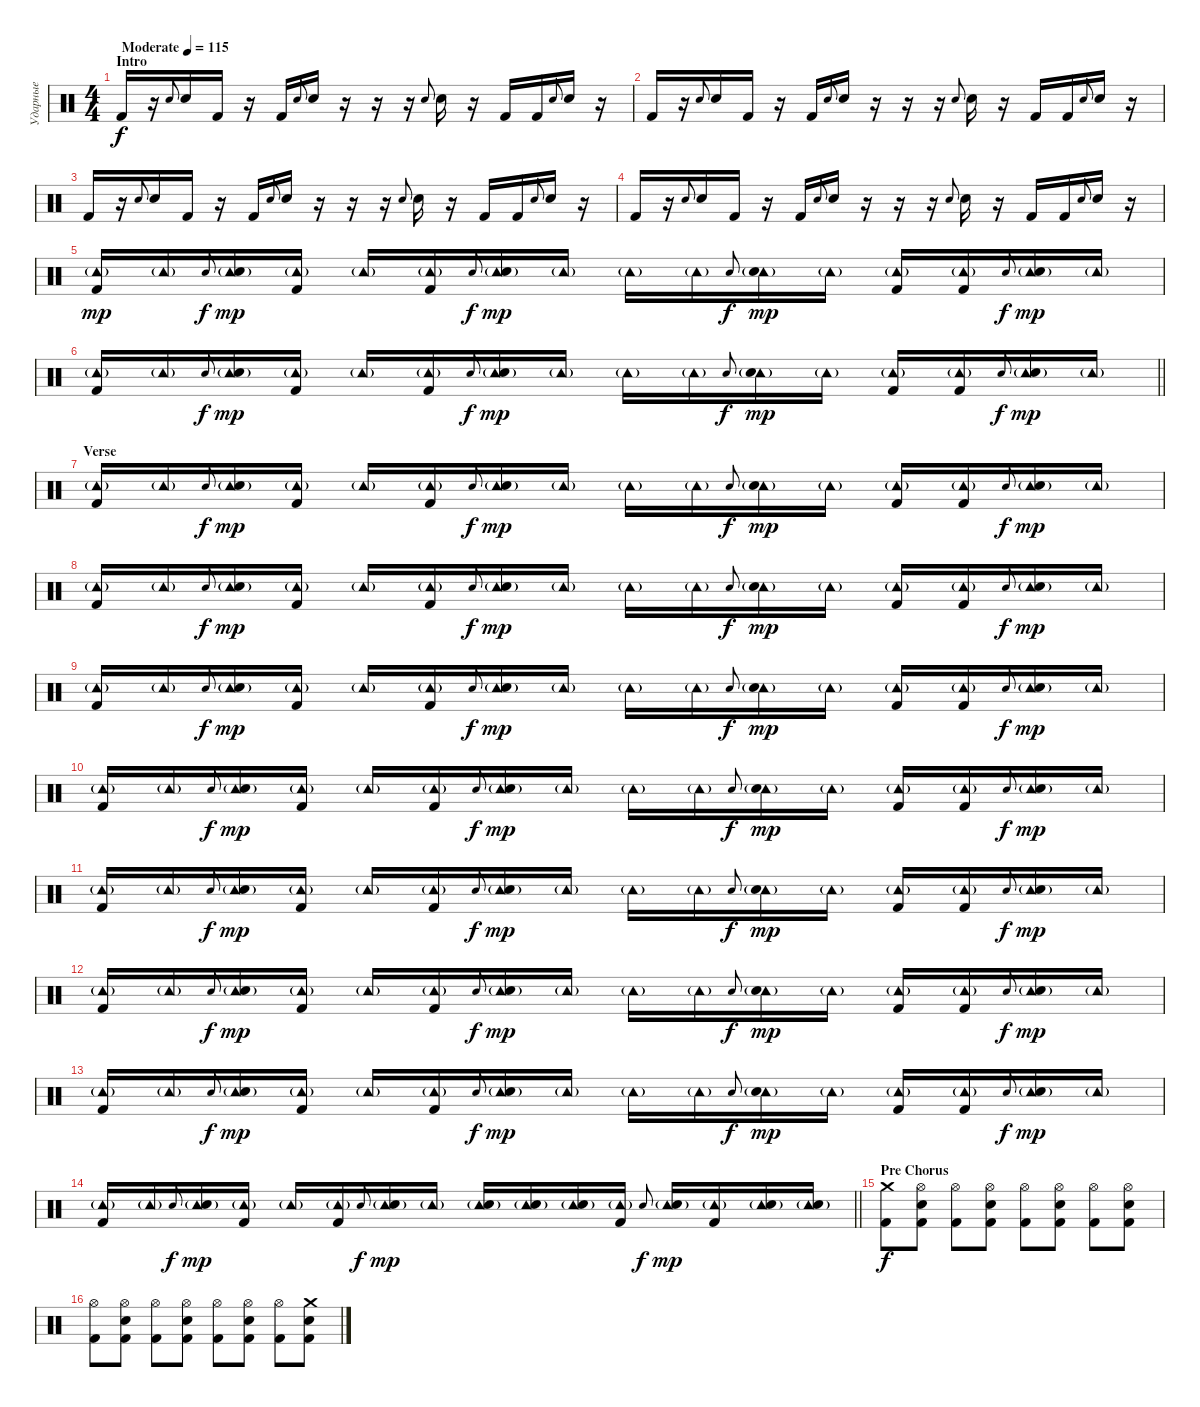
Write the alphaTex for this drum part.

\track ("Ударные" "Ударные") {instrument percussion}
\staff {score}
\articulation defaults
\ts (4 4)
\section ("" "Intro")
\tempo (115 "Moderate")
\clef neutral
\ks c "Kick (hit) 2".16{dy f}
r.16 "Snare (hit) 2".8{gr onbeat} "Snare (hit) 2".16 "Kick (hit) 2".16 r.16 "Kick (hit) 2".16 "Snare (hit) 2".8{gr onbeat} "Snare (hit) 2".16 r.16 r.16 r.16 "Snare (hit) 2".8{gr onbeat} "Snare (hit) 2".16 r.16 "Kick (hit) 2".16 "Kick (hit) 2".16 "Snare (hit) 2".8{gr onbeat} "Snare (hit) 2".16 r.16 |
"Kick (hit) 2".16 r.16 "Snare (hit) 2".8{gr onbeat} "Snare (hit) 2".16 "Kick (hit) 2".16 r.16 "Kick (hit) 2".16 "Snare (hit) 2".8{gr onbeat} "Snare (hit) 2".16 r.16 r.16 r.16 "Snare (hit) 2".8{gr onbeat} "Snare (hit) 2".16 r.16 "Kick (hit) 2".16 "Kick (hit) 2".16 "Snare (hit) 2".8{gr onbeat} "Snare (hit) 2".16 r.16 |
"Kick (hit) 2".16 r.16 "Snare (hit) 2".8{gr onbeat} "Snare (hit) 2".16 "Kick (hit) 2".16 r.16 "Kick (hit) 2".16 "Snare (hit) 2".8{gr onbeat} "Snare (hit) 2".16 r.16 r.16 r.16 "Snare (hit) 2".8{gr onbeat} "Snare (hit) 2".16 r.16 "Kick (hit) 2".16 "Kick (hit) 2".16 "Snare (hit) 2".8{gr onbeat} "Snare (hit) 2".16 r.16 |
"Kick (hit) 2".16 r.16 "Snare (hit) 2".8{gr onbeat} "Snare (hit) 2".16 "Kick (hit) 2".16 r.16 "Kick (hit) 2".16 "Snare (hit) 2".8{gr onbeat} "Snare (hit) 2".16 r.16 r.16 r.16 "Snare (hit) 2".8{gr onbeat} "Snare (hit) 2".16 r.16 "Kick (hit) 2".16 "Kick (hit) 2".16 "Snare (hit) 2".8{gr onbeat} "Snare (hit) 2".16 r.16 |
("Tambourine (hit)"{g} "Kick (hit) 2").16{dy mp} "Tambourine (hit)"{g}.16 "Snare (hit) 2".8{gr onbeat dy f} ("Tambourine (hit)"{g} "Snare (hit) 2").16{dy mp} ("Tambourine (hit)"{g} "Kick (hit) 2").16 "Tambourine (hit)"{g}.16 ("Tambourine (hit)"{g} "Kick (hit) 2").16 "Snare (hit) 2".8{gr onbeat dy f} ("Tambourine (hit)"{g} "Snare (hit) 2").16{dy mp} "Tambourine (hit)"{g}.16 "Tambourine (hit)"{g}.16 "Tambourine (hit)"{g}.16 "Snare (hit) 2".8{gr onbeat dy f} ("Tambourine (hit)"{g} "Snare (hit) 2").16{dy mp} "Tambourine (hit)"{g}.16 ("Tambourine (hit)"{g} "Kick (hit) 2").16 ("Tambourine (hit)"{g} "Kick (hit) 2").16 "Snare (hit) 2".8{gr onbeat dy f} ("Tambourine (hit)"{g} "Snare (hit) 2").16{dy mp} "Tambourine (hit)"{g}.16 |
\barLineRight lightlight
("Tambourine (hit)"{g} "Kick (hit) 2").16 "Tambourine (hit)"{g}.16 "Snare (hit) 2".8{gr onbeat dy f} ("Tambourine (hit)"{g} "Snare (hit) 2").16{dy mp} ("Tambourine (hit)"{g} "Kick (hit) 2").16 "Tambourine (hit)"{g}.16 ("Tambourine (hit)"{g} "Kick (hit) 2").16 "Snare (hit) 2".8{gr onbeat dy f} ("Tambourine (hit)"{g} "Snare (hit) 2").16{dy mp} "Tambourine (hit)"{g}.16 "Tambourine (hit)"{g}.16 "Tambourine (hit)"{g}.16 "Snare (hit) 2".8{gr onbeat dy f} ("Tambourine (hit)"{g} "Snare (hit) 2").16{dy mp} "Tambourine (hit)"{g}.16 ("Tambourine (hit)"{g} "Kick (hit) 2").16 ("Tambourine (hit)"{g} "Kick (hit) 2").16 "Snare (hit) 2".8{gr onbeat dy f} ("Tambourine (hit)"{g} "Snare (hit) 2").16{dy mp} "Tambourine (hit)"{g}.16 |
\section ("" "Verse")
("Tambourine (hit)"{g} "Kick (hit) 2").16 "Tambourine (hit)"{g}.16 "Snare (hit) 2".8{gr onbeat dy f} ("Tambourine (hit)"{g} "Snare (hit) 2").16{dy mp} ("Tambourine (hit)"{g} "Kick (hit) 2").16 "Tambourine (hit)"{g}.16 ("Tambourine (hit)"{g} "Kick (hit) 2").16 "Snare (hit) 2".8{gr onbeat dy f} ("Tambourine (hit)"{g} "Snare (hit) 2").16{dy mp} "Tambourine (hit)"{g}.16 "Tambourine (hit)"{g}.16 "Tambourine (hit)"{g}.16 "Snare (hit) 2".8{gr onbeat dy f} ("Tambourine (hit)"{g} "Snare (hit) 2").16{dy mp} "Tambourine (hit)"{g}.16 ("Tambourine (hit)"{g} "Kick (hit) 2").16 ("Tambourine (hit)"{g} "Kick (hit) 2").16 "Snare (hit) 2".8{gr onbeat dy f} ("Tambourine (hit)"{g} "Snare (hit) 2").16{dy mp} "Tambourine (hit)"{g}.16 |
("Tambourine (hit)"{g} "Kick (hit) 2").16 "Tambourine (hit)"{g}.16 "Snare (hit) 2".8{gr onbeat dy f} ("Tambourine (hit)"{g} "Snare (hit) 2").16{dy mp} ("Tambourine (hit)"{g} "Kick (hit) 2").16 "Tambourine (hit)"{g}.16 ("Tambourine (hit)"{g} "Kick (hit) 2").16 "Snare (hit) 2".8{gr onbeat dy f} ("Tambourine (hit)"{g} "Snare (hit) 2").16{dy mp} "Tambourine (hit)"{g}.16 "Tambourine (hit)"{g}.16 "Tambourine (hit)"{g}.16 "Snare (hit) 2".8{gr onbeat dy f} ("Tambourine (hit)"{g} "Snare (hit) 2").16{dy mp} "Tambourine (hit)"{g}.16 ("Tambourine (hit)"{g} "Kick (hit) 2").16 ("Tambourine (hit)"{g} "Kick (hit) 2").16 "Snare (hit) 2".8{gr onbeat dy f} ("Tambourine (hit)"{g} "Snare (hit) 2").16{dy mp} "Tambourine (hit)"{g}.16 |
("Tambourine (hit)"{g} "Kick (hit) 2").16 "Tambourine (hit)"{g}.16 "Snare (hit) 2".8{gr onbeat dy f} ("Tambourine (hit)"{g} "Snare (hit) 2").16{dy mp} ("Tambourine (hit)"{g} "Kick (hit) 2").16 "Tambourine (hit)"{g}.16 ("Tambourine (hit)"{g} "Kick (hit) 2").16 "Snare (hit) 2".8{gr onbeat dy f} ("Tambourine (hit)"{g} "Snare (hit) 2").16{dy mp} "Tambourine (hit)"{g}.16 "Tambourine (hit)"{g}.16 "Tambourine (hit)"{g}.16 "Snare (hit) 2".8{gr onbeat dy f} ("Tambourine (hit)"{g} "Snare (hit) 2").16{dy mp} "Tambourine (hit)"{g}.16 ("Tambourine (hit)"{g} "Kick (hit) 2").16 ("Tambourine (hit)"{g} "Kick (hit) 2").16 "Snare (hit) 2".8{gr onbeat dy f} ("Tambourine (hit)"{g} "Snare (hit) 2").16{dy mp} "Tambourine (hit)"{g}.16 |
("Tambourine (hit)"{g} "Kick (hit) 2").16 "Tambourine (hit)"{g}.16 "Snare (hit) 2".8{gr onbeat dy f} ("Tambourine (hit)"{g} "Snare (hit) 2").16{dy mp} ("Tambourine (hit)"{g} "Kick (hit) 2").16 "Tambourine (hit)"{g}.16 ("Tambourine (hit)"{g} "Kick (hit) 2").16 "Snare (hit) 2".8{gr onbeat dy f} ("Tambourine (hit)"{g} "Snare (hit) 2").16{dy mp} "Tambourine (hit)"{g}.16 "Tambourine (hit)"{g}.16 "Tambourine (hit)"{g}.16 "Snare (hit) 2".8{gr onbeat dy f} ("Tambourine (hit)"{g} "Snare (hit) 2").16{dy mp} "Tambourine (hit)"{g}.16 ("Tambourine (hit)"{g} "Kick (hit) 2").16 ("Tambourine (hit)"{g} "Kick (hit) 2").16 "Snare (hit) 2".8{gr onbeat dy f} ("Tambourine (hit)"{g} "Snare (hit) 2").16{dy mp} "Tambourine (hit)"{g}.16 |
("Tambourine (hit)"{g} "Kick (hit) 2").16 "Tambourine (hit)"{g}.16 "Snare (hit) 2".8{gr onbeat dy f} ("Tambourine (hit)"{g} "Snare (hit) 2").16{dy mp} ("Tambourine (hit)"{g} "Kick (hit) 2").16 "Tambourine (hit)"{g}.16 ("Tambourine (hit)"{g} "Kick (hit) 2").16 "Snare (hit) 2".8{gr onbeat dy f} ("Tambourine (hit)"{g} "Snare (hit) 2").16{dy mp} "Tambourine (hit)"{g}.16 "Tambourine (hit)"{g}.16 "Tambourine (hit)"{g}.16 "Snare (hit) 2".8{gr onbeat dy f} ("Tambourine (hit)"{g} "Snare (hit) 2").16{dy mp} "Tambourine (hit)"{g}.16 ("Tambourine (hit)"{g} "Kick (hit) 2").16 ("Tambourine (hit)"{g} "Kick (hit) 2").16 "Snare (hit) 2".8{gr onbeat dy f} ("Tambourine (hit)"{g} "Snare (hit) 2").16{dy mp} "Tambourine (hit)"{g}.16 |
("Tambourine (hit)"{g} "Kick (hit) 2").16 "Tambourine (hit)"{g}.16 "Snare (hit) 2".8{gr onbeat dy f} ("Tambourine (hit)"{g} "Snare (hit) 2").16{dy mp} ("Tambourine (hit)"{g} "Kick (hit) 2").16 "Tambourine (hit)"{g}.16 ("Tambourine (hit)"{g} "Kick (hit) 2").16 "Snare (hit) 2".8{gr onbeat dy f} ("Tambourine (hit)"{g} "Snare (hit) 2").16{dy mp} "Tambourine (hit)"{g}.16 "Tambourine (hit)"{g}.16 "Tambourine (hit)"{g}.16 "Snare (hit) 2".8{gr onbeat dy f} ("Tambourine (hit)"{g} "Snare (hit) 2").16{dy mp} "Tambourine (hit)"{g}.16 ("Tambourine (hit)"{g} "Kick (hit) 2").16 ("Tambourine (hit)"{g} "Kick (hit) 2").16 "Snare (hit) 2".8{gr onbeat dy f} ("Tambourine (hit)"{g} "Snare (hit) 2").16{dy mp} "Tambourine (hit)"{g}.16 |
("Tambourine (hit)"{g} "Kick (hit) 2").16 "Tambourine (hit)"{g}.16 "Snare (hit) 2".8{gr onbeat dy f} ("Tambourine (hit)"{g} "Snare (hit) 2").16{dy mp} ("Tambourine (hit)"{g} "Kick (hit) 2").16 "Tambourine (hit)"{g}.16 ("Tambourine (hit)"{g} "Kick (hit) 2").16 "Snare (hit) 2".8{gr onbeat dy f} ("Tambourine (hit)"{g} "Snare (hit) 2").16{dy mp} "Tambourine (hit)"{g}.16 "Tambourine (hit)"{g}.16 "Tambourine (hit)"{g}.16 "Snare (hit) 2".8{gr onbeat dy f} ("Tambourine (hit)"{g} "Snare (hit) 2").16{dy mp} "Tambourine (hit)"{g}.16 ("Tambourine (hit)"{g} "Kick (hit) 2").16 ("Tambourine (hit)"{g} "Kick (hit) 2").16 "Snare (hit) 2".8{gr onbeat dy f} ("Tambourine (hit)"{g} "Snare (hit) 2").16{dy mp} "Tambourine (hit)"{g}.16 |
\barLineRight lightlight
("Tambourine (hit)"{g} "Kick (hit) 2").16 "Tambourine (hit)"{g}.16 "Snare (hit) 2".8{gr onbeat dy f} ("Tambourine (hit)"{g} "Snare (hit) 2").16{dy mp} ("Tambourine (hit)"{g} "Kick (hit) 2").16 "Tambourine (hit)"{g}.16 ("Tambourine (hit)"{g} "Kick (hit) 2").16 "Snare (hit) 2".8{gr onbeat dy f} ("Tambourine (hit)"{g} "Snare (hit) 2").16{dy mp} "Tambourine (hit)"{g}.16 ("Tambourine (hit)"{g} "Snare (hit) 2").16 ("Tambourine (hit)"{g} "Snare (hit) 2").16 ("Tambourine (hit)"{g} "Snare (hit) 2").16 ("Tambourine (hit)"{g} "Kick (hit) 2").16 "Snare (hit) 2".8{gr onbeat dy f} ("Tambourine (hit)"{g} "Snare (hit) 2").16{dy mp} ("Tambourine (hit)"{g} "Kick (hit) 2").16 ("Tambourine (hit)"{g} "Snare (hit) 2").16 ("Tambourine (hit)"{g} "Snare (hit) 2").16 |
\section ("" "Pre Chorus")
("Crash medium (hit)" "Kick (hit) 2").8{dy f} ("Hi-Hat (open)" "Snare (hit) 2" "Kick (hit) 2").8 ("Hi-Hat (open)" "Kick (hit) 2").8 ("Hi-Hat (open)" "Snare (hit) 2" "Kick (hit) 2").8 ("Hi-Hat (open)" "Kick (hit) 2").8 ("Hi-Hat (open)" "Snare (hit) 2" "Kick (hit) 2").8 ("Hi-Hat (open)" "Kick (hit) 2").8 ("Hi-Hat (open)" "Snare (hit) 2" "Kick (hit) 2").8 |
("Hi-Hat (open)" "Kick (hit) 2").8 ("Hi-Hat (open)" "Snare (hit) 2" "Kick (hit) 2").8 ("Hi-Hat (open)" "Kick (hit) 2").8 ("Hi-Hat (open)" "Snare (hit) 2" "Kick (hit) 2").8 ("Hi-Hat (open)" "Kick (hit) 2").8 ("Hi-Hat (open)" "Snare (hit) 2" "Kick (hit) 2").8 ("Hi-Hat (open)" "Kick (hit) 2").8 ("Crash medium (hit)" "Snare (hit) 2" "Kick (hit) 2").8
